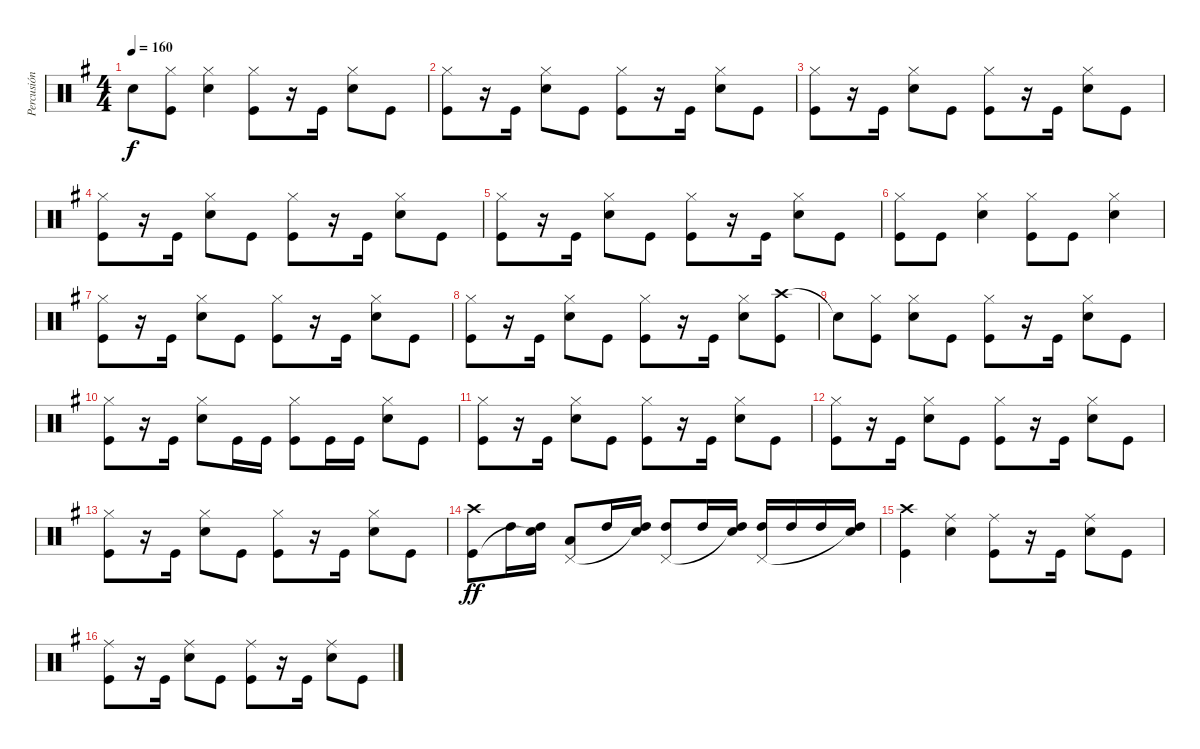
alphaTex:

\track ("Percusión" "Percusión") {instrument percussion}
\staff {score}
\articulation defaults
\ts (4 4)
\tempo 160
\clef neutral
\ks g "Snare (hit)"{t}.8{dy f}
("Hi-Hat (closed)" "Kick (hit)").8 ("Hi-Hat (closed)" "Snare (hit) 2").4 ("Hi-Hat (closed)" "Kick (hit)").8 r.16 "Kick (hit)".16 ("Hi-Hat (closed)" "Snare (hit) 2").8 "Kick (hit)".8 |
("Hi-Hat (closed)" "Kick (hit)").8 r.16 "Kick (hit)".16 ("Hi-Hat (closed)" "Snare (hit) 2").8 "Kick (hit)".8 ("Hi-Hat (closed)" "Kick (hit)").8 r.16 "Kick (hit)".16 ("Hi-Hat (closed)" "Snare (hit) 2").8 "Kick (hit)".8 |
("Hi-Hat (closed)" "Kick (hit)").8 r.16 "Kick (hit)".16 ("Hi-Hat (closed)" "Snare (hit) 2").8 "Kick (hit)".8 ("Hi-Hat (closed)" "Kick (hit)").8 r.16 "Kick (hit)".16 ("Hi-Hat (closed)" "Snare (hit) 2").8 "Kick (hit)".8 |
("Hi-Hat (closed)" "Kick (hit)").8 r.16 "Kick (hit)".16 ("Hi-Hat (closed)" "Snare (hit) 2").8 "Kick (hit)".8 ("Hi-Hat (closed)" "Kick (hit)").8 r.16 "Kick (hit)".16 ("Hi-Hat (closed)" "Snare (hit) 2").8 "Kick (hit)".8 |
("Hi-Hat (closed)" "Kick (hit)").8 r.16 "Kick (hit)".16 ("Hi-Hat (closed)" "Snare (hit) 2").8 "Kick (hit)".8 ("Hi-Hat (closed)" "Kick (hit)").8 r.16 "Kick (hit)".16 ("Hi-Hat (closed)" "Snare (hit) 2").8 "Kick (hit)".8 |
("Hi-Hat (closed)" "Kick (hit)").8 "Kick (hit)".8 ("Hi-Hat (closed)" "Snare (hit) 2").4 ("Hi-Hat (closed)" "Kick (hit)").8 "Kick (hit)".8 ("Hi-Hat (closed)" "Snare (hit) 2").4 |
("Hi-Hat (closed)" "Kick (hit)").8 r.16 "Kick (hit)".16 ("Hi-Hat (closed)" "Snare (hit) 2").8 "Kick (hit)".8 ("Hi-Hat (closed)" "Kick (hit)").8 r.16 "Kick (hit)".16 ("Hi-Hat (closed)" "Snare (hit) 2").8 "Kick (hit)".8 |
("Hi-Hat (closed)" "Kick (hit)").8 r.16 "Kick (hit)".16 ("Hi-Hat (closed)" "Snare (hit) 2").8 "Kick (hit)".8 ("Hi-Hat (closed)" "Kick (hit)").8 r.16 "Kick (hit)".16 ("Hi-Hat (closed)" "Snare (hit) 2").8 ("Crash high (hit)" "Kick (hit)").8 |
"Snare (hit)"{t}.8 ("Hi-Hat (closed)" "Kick (hit)").8 ("Hi-Hat (closed)" "Snare (hit) 2").8 "Kick (hit)".8 ("Hi-Hat (closed)" "Kick (hit)").8 r.16 "Kick (hit)".16 ("Hi-Hat (closed)" "Snare (hit) 2").8 "Kick (hit)".8 |
("Hi-Hat (closed)" "Kick (hit)").8 r.16 "Kick (hit)".16 ("Hi-Hat (closed)" "Snare (hit) 2").8 "Kick (hit)".16 "Kick (hit)".16 ("Hi-Hat (closed)" "Kick (hit)").8 "Kick (hit)".16 "Kick (hit)".16 ("Hi-Hat (closed)" "Snare (hit) 2").8 "Kick (hit)".8 |
("Hi-Hat (closed)" "Kick (hit)").8 r.16 "Kick (hit)".16 ("Hi-Hat (closed)" "Snare (hit) 2").8 "Kick (hit)".8 ("Hi-Hat (closed)" "Kick (hit)").8 r.16 "Kick (hit)".16 ("Hi-Hat (closed)" "Snare (hit) 2").8 "Kick (hit)".8 |
("Hi-Hat (closed)" "Kick (hit)").8 r.16 "Kick (hit)".16 ("Hi-Hat (closed)" "Snare (hit) 2").8 "Kick (hit)".8 ("Hi-Hat (closed)" "Kick (hit)").8 r.16 "Kick (hit)".16 ("Hi-Hat (closed)" "Snare (hit) 2").8 "Kick (hit)".8 |
("Hi-Hat (closed)" "Kick (hit)").8 r.16 "Kick (hit)".16 ("Hi-Hat (closed)" "Snare (hit) 2").8 "Kick (hit)".8 ("Hi-Hat (closed)" "Kick (hit)").8 r.16 "Kick (hit)".16 ("Hi-Hat (closed)" "Snare (hit) 2").8 "Kick (hit)".8 |
("Crash high (hit)" "Kick (hit)").8{dy ff} "High Tom (hit)".16 ("High Tom (hit)" "Snare (hit)"{t}).16 ("Low Tom (hit)" "Pedal Hi-Hat (hit)").8 "High Tom (hit)".16 ("High Tom (hit)" "Snare (hit)"{t}).16 ("High Tom (hit)" "Pedal Hi-Hat (hit)").8 "High Tom (hit)".16 ("High Tom (hit)" "Snare (hit)"{t}).16 ("High Tom (hit)" "Pedal Hi-Hat (hit)").16 "High Tom (hit)".16 "High Tom (hit)".16 ("High Tom (hit)" "Snare (hit)"{t}).16 |
("Crash high (hit)" "Kick (hit)").4 ("Ride (middle)" "Snare (hit) 2").4 ("Ride (middle)" "Kick (hit)").8 r.16 "Kick (hit)".16 ("Ride (middle)" "Snare (hit) 2").8 "Kick (hit)".8 |
("Ride (middle)" "Kick (hit)").8 r.16 "Kick (hit)".16 ("Ride (middle)" "Snare (hit) 2").8 "Kick (hit)".8 ("Ride (middle)" "Kick (hit)").8 r.16 "Kick (hit)".16 ("Ride (middle)" "Snare (hit) 2").8 "Kick (hit)".8
